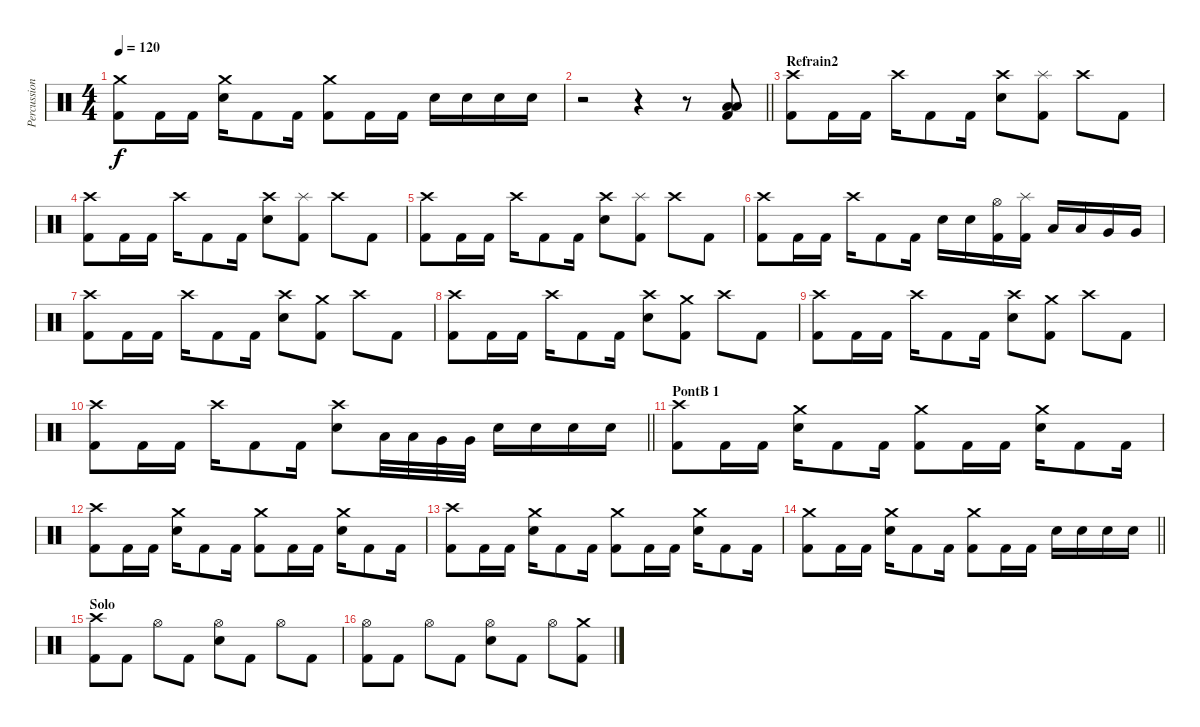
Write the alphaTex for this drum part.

\track ("Percussion" "Percussion") {instrument percussion}
\staff {score}
\articulation defaults
\ts (4 4)
\tempo 120
\clef neutral
\ks c
("Crash medium (hit)" "Kick (hit) 2").8{dy f} "Kick (hit) 2".16 "Kick (hit) 2".16 ("Crash medium (hit)" "Electric Snare (hit)").16 "Kick (hit) 2".8 "Kick (hit) 2".16 ("Crash medium (hit)" "Kick (hit) 2").8 "Kick (hit) 2".16 "Kick (hit) 2".16 "Electric Snare (hit)".16 "Electric Snare (hit)".16 "Electric Snare (hit)".16 "Electric Snare (hit)".16 |
\barLineRight lightlight
r.2 r.4 r.8 ("Low Floor Tom (hit)" "Low Tom (hit)" "Kick (hit) 2").8 |
\section ("" "Refrain2")
("Crash high (hit)" "Kick (hit) 2").8 "Kick (hit) 2".16 "Kick (hit) 2".16 "Crash high (hit)".16 "Kick (hit) 2".8 "Kick (hit) 2".16 ("Crash high (hit)" "Electric Snare (hit)").8 ("Splash (hit)" "Kick (hit) 2").8 "Crash high (hit)".8 "Kick (hit) 2".8 |
("Crash high (hit)" "Kick (hit) 2").8 "Kick (hit) 2".16 "Kick (hit) 2".16 "Crash high (hit)".16 "Kick (hit) 2".8 "Kick (hit) 2".16 ("Crash high (hit)" "Electric Snare (hit)").8 ("Splash (hit)" "Kick (hit) 2").8 "Crash high (hit)".8 "Kick (hit) 2".8 |
("Crash high (hit)" "Kick (hit) 2").8 "Kick (hit) 2".16 "Kick (hit) 2".16 "Crash high (hit)".16 "Kick (hit) 2".8 "Kick (hit) 2".16 ("Crash high (hit)" "Electric Snare (hit)").8 ("Splash (hit)" "Kick (hit) 2").8 "Crash high (hit)".8 "Kick (hit) 2".8 |
("Crash high (hit)" "Kick (hit) 2").8 "Kick (hit) 2".16 "Kick (hit) 2".16 "Crash high (hit)".16 "Kick (hit) 2".8 "Kick (hit) 2".16 "Electric Snare (hit)".16 "Electric Snare (hit)".16 ("Hi-Hat (open)" "Kick (hit) 2").16 ("Splash (hit)" "Kick (hit) 2").16 "Low Tom (hit)".16 "Low Tom (hit)".16 "Very Low Tom (hit)".16 "Very Low Tom (hit)".16 |
("Crash high (hit)" "Kick (hit) 2").8 "Kick (hit) 2".16 "Kick (hit) 2".16 "Crash high (hit)".16 "Kick (hit) 2".8 "Kick (hit) 2".16 ("Crash high (hit)" "Electric Snare (hit)").8 ("Crash medium (hit)" "Kick (hit) 2").8 "Crash high (hit)".8 "Kick (hit) 2".8 |
("Crash high (hit)" "Kick (hit) 2").8 "Kick (hit) 2".16 "Kick (hit) 2".16 "Crash high (hit)".16 "Kick (hit) 2".8 "Kick (hit) 2".16 ("Crash high (hit)" "Electric Snare (hit)").8 ("Crash medium (hit)" "Kick (hit) 2").8 "Crash high (hit)".8 "Kick (hit) 2".8 |
("Crash high (hit)" "Kick (hit) 2").8 "Kick (hit) 2".16 "Kick (hit) 2".16 "Crash high (hit)".16 "Kick (hit) 2".8 "Kick (hit) 2".16 ("Crash high (hit)" "Electric Snare (hit)").8 ("Crash medium (hit)" "Kick (hit) 2").8 "Crash high (hit)".8 "Kick (hit) 2".8 |
\barLineRight lightlight
("Crash high (hit)" "Kick (hit) 2").8 "Kick (hit) 2".16 "Kick (hit) 2".16 "Crash high (hit)".16 "Kick (hit) 2".8 "Kick (hit) 2".16 ("Crash high (hit)" "Electric Snare (hit)").8 "Low Tom (hit)".32 "Low Tom (hit)".32 "Very Low Tom (hit)".32 "Very Low Tom (hit)".32 "Electric Snare (hit)".16 "Electric Snare (hit)".16 "Electric Snare (hit)".16 "Electric Snare (hit)".16 |
\section ("" "PontB 1")
("Crash high (hit)" "Kick (hit) 2").8 "Kick (hit) 2".16 "Kick (hit) 2".16 ("Crash medium (hit)" "Electric Snare (hit)").16 "Kick (hit) 2".8 "Kick (hit) 2".16 ("Crash medium (hit)" "Kick (hit) 2").8 "Kick (hit) 2".16 "Kick (hit) 2".16 ("Crash medium (hit)" "Electric Snare (hit)").16 "Kick (hit) 2".8 "Kick (hit) 2".16 |
("Crash high (hit)" "Kick (hit) 2").8 "Kick (hit) 2".16 "Kick (hit) 2".16 ("Crash medium (hit)" "Electric Snare (hit)").16 "Kick (hit) 2".8 "Kick (hit) 2".16 ("Crash medium (hit)" "Kick (hit) 2").8 "Kick (hit) 2".16 "Kick (hit) 2".16 ("Crash medium (hit)" "Electric Snare (hit)").16 "Kick (hit) 2".8 "Kick (hit) 2".16 |
("Crash high (hit)" "Kick (hit) 2").8 "Kick (hit) 2".16 "Kick (hit) 2".16 ("Crash medium (hit)" "Electric Snare (hit)").16 "Kick (hit) 2".8 "Kick (hit) 2".16 ("Crash medium (hit)" "Kick (hit) 2").8 "Kick (hit) 2".16 "Kick (hit) 2".16 ("Crash medium (hit)" "Electric Snare (hit)").16 "Kick (hit) 2".8 "Kick (hit) 2".16 |
\barLineRight lightlight
("Crash medium (hit)" "Kick (hit) 2").8 "Kick (hit) 2".16 "Kick (hit) 2".16 ("Crash medium (hit)" "Electric Snare (hit)").16 "Kick (hit) 2".8 "Kick (hit) 2".16 ("Crash medium (hit)" "Kick (hit) 2").8 "Kick (hit) 2".16 "Kick (hit) 2".16 "Electric Snare (hit)".16 "Electric Snare (hit)".16 "Electric Snare (hit)".16 "Electric Snare (hit)".16 |
\section ("" "Solo")
("Crash high (hit)" "Kick (hit) 2").8 "Kick (hit) 2".8 "Hi-Hat (open)".8 "Kick (hit) 2".8 ("Hi-Hat (open)" "Electric Snare (hit)").8 "Kick (hit) 2".8 "Hi-Hat (open)".8 "Kick (hit) 2".8 |
("Hi-Hat (open)" "Kick (hit) 2").8 "Kick (hit) 2".8 "Hi-Hat (open)".8 "Kick (hit) 2".8 ("Hi-Hat (open)" "Electric Snare (hit)").8 "Kick (hit) 2".8 "Hi-Hat (open)".8 ("Crash medium (hit)" "Kick (hit) 2").8
